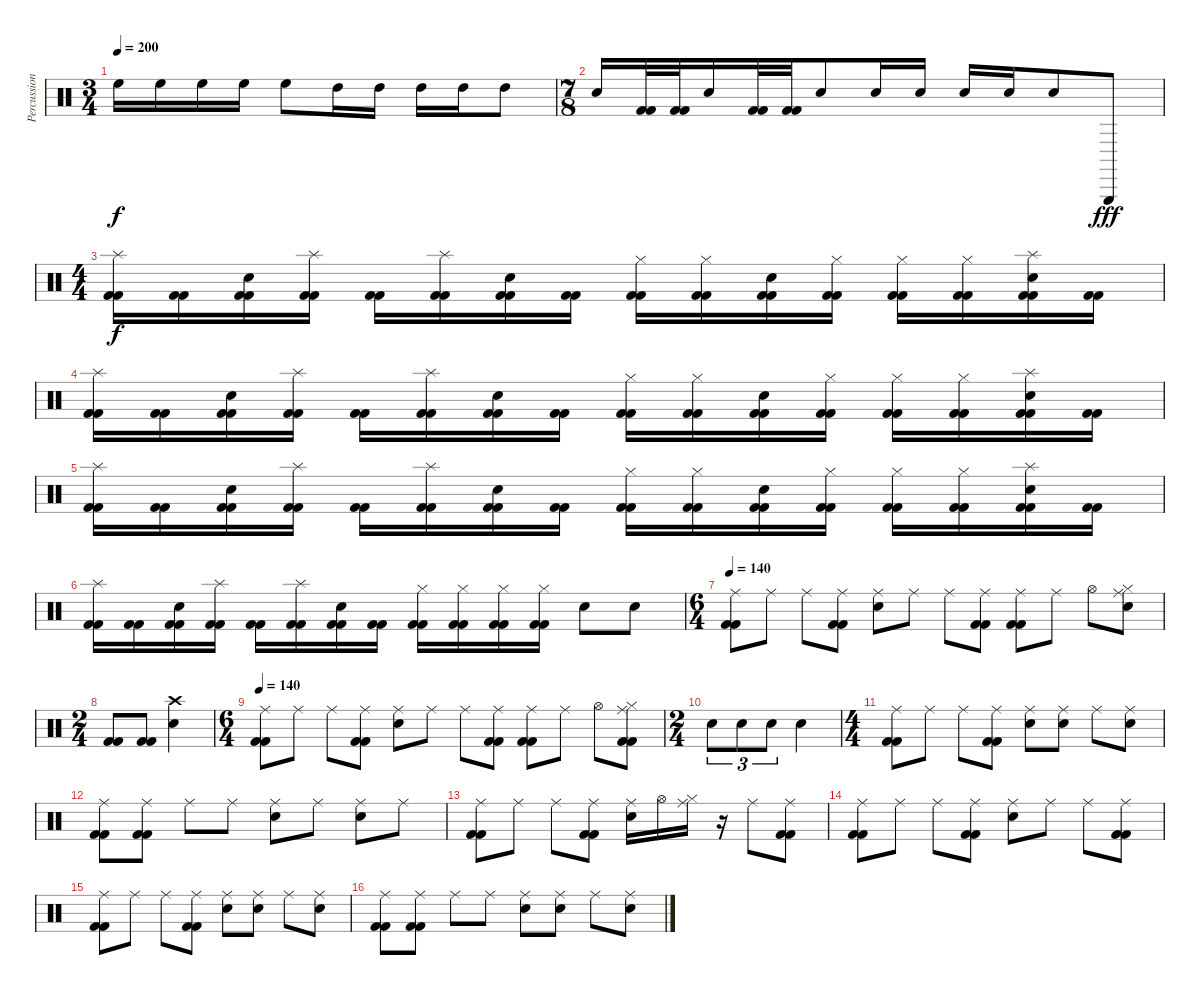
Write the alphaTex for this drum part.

\track ("Percussions" "Percussion") {instrument percussion}
\staff {score}
\articulation defaults
\ts (3 4)
\tempo 200
\clef neutral
\ks c "High Floor Tom (hit)".16{dy f} "High Floor Tom (hit)".16 "High Floor Tom (hit)".16 "High Floor Tom (hit)".16 "High Floor Tom (hit)".8 "High Tom (hit)".16 "High Tom (hit)".16 "High Tom (hit)".16 "High Tom (hit)".16 "High Tom (hit)".8
|
\ts (7 8)
"Electric Snare (hit)".16 ("Kick (hit) 2" "Kick (hit) 2").32 ("Kick (hit) 2" "Kick (hit) 2").32 "Electric Snare (hit)".16 ("Kick (hit) 2" "Kick (hit) 2").32 ("Kick (hit) 2" "Kick (hit) 2").32 "Electric Snare (hit)".8 "Electric Snare (hit)".16 "Electric Snare (hit)".16 "Electric Snare (hit)".16 "Electric Snare (hit)".16 "Electric Snare (hit)".8 "Triangle (hit)".8{dy fff} |
\ts (4 4)
("Kick (hit) 2" "Kick (hit) 2" "Splash (hit)").16{dy f} ("Kick (hit) 2" "Kick (hit) 2").16 ("Kick (hit) 2" "Kick (hit) 2" "Electric Snare (hit)").16 ("Kick (hit) 2" "Kick (hit) 2" "Splash (hit)").16 ("Kick (hit) 2" "Kick (hit) 2").16 ("Kick (hit) 2" "Kick (hit) 2" "Splash (hit)").16 ("Kick (hit) 2" "Kick (hit) 2" "Electric Snare (hit)").16 ("Kick (hit) 2" "Kick (hit) 2").16 ("Kick (hit) 2" "Kick (hit) 2" "Hi-Hat (closed)").16 ("Kick (hit) 2" "Kick (hit) 2" "Hi-Hat (closed)").16 ("Kick (hit) 2" "Kick (hit) 2" "Electric Snare (hit)").16 ("Kick (hit) 2" "Kick (hit) 2" "Hi-Hat (closed)").16 ("Kick (hit) 2" "Kick (hit) 2" "Hi-Hat (closed)").16 ("Kick (hit) 2" "Kick (hit) 2" "Hi-Hat (closed)").16 ("Kick (hit) 2" "Kick (hit) 2" "Electric Snare (hit)" "Splash (hit)").16 ("Kick (hit) 2" "Kick (hit) 2").16 |
("Kick (hit) 2" "Kick (hit) 2" "Splash (hit)").16 ("Kick (hit) 2" "Kick (hit) 2").16 ("Kick (hit) 2" "Kick (hit) 2" "Electric Snare (hit)").16 ("Kick (hit) 2" "Kick (hit) 2" "Splash (hit)").16 ("Kick (hit) 2" "Kick (hit) 2").16 ("Kick (hit) 2" "Kick (hit) 2" "Splash (hit)").16 ("Kick (hit) 2" "Kick (hit) 2" "Electric Snare (hit)").16 ("Kick (hit) 2" "Kick (hit) 2").16 ("Kick (hit) 2" "Kick (hit) 2" "Hi-Hat (closed)").16 ("Kick (hit) 2" "Kick (hit) 2" "Hi-Hat (closed)").16 ("Kick (hit) 2" "Kick (hit) 2" "Electric Snare (hit)").16 ("Kick (hit) 2" "Kick (hit) 2" "Hi-Hat (closed)").16 ("Kick (hit) 2" "Kick (hit) 2" "Hi-Hat (closed)").16 ("Kick (hit) 2" "Kick (hit) 2" "Hi-Hat (closed)").16 ("Kick (hit) 2" "Kick (hit) 2" "Electric Snare (hit)" "Splash (hit)").16 ("Kick (hit) 2" "Kick (hit) 2").16 |
("Kick (hit) 2" "Kick (hit) 2" "Splash (hit)").16 ("Kick (hit) 2" "Kick (hit) 2").16 ("Kick (hit) 2" "Kick (hit) 2" "Electric Snare (hit)").16 ("Kick (hit) 2" "Kick (hit) 2" "Splash (hit)").16 ("Kick (hit) 2" "Kick (hit) 2").16 ("Kick (hit) 2" "Kick (hit) 2" "Splash (hit)").16 ("Kick (hit) 2" "Kick (hit) 2" "Electric Snare (hit)").16 ("Kick (hit) 2" "Kick (hit) 2").16 ("Kick (hit) 2" "Kick (hit) 2" "Hi-Hat (closed)").16 ("Kick (hit) 2" "Kick (hit) 2" "Hi-Hat (closed)").16 ("Kick (hit) 2" "Kick (hit) 2" "Electric Snare (hit)").16 ("Kick (hit) 2" "Kick (hit) 2" "Hi-Hat (closed)").16 ("Kick (hit) 2" "Kick (hit) 2" "Hi-Hat (closed)").16 ("Kick (hit) 2" "Kick (hit) 2" "Hi-Hat (closed)").16 ("Kick (hit) 2" "Kick (hit) 2" "Electric Snare (hit)" "Splash (hit)").16 ("Kick (hit) 2" "Kick (hit) 2").16 |
("Kick (hit) 2" "Kick (hit) 2" "Splash (hit)").16 ("Kick (hit) 2" "Kick (hit) 2").16 ("Kick (hit) 2" "Kick (hit) 2" "Electric Snare (hit)").16 ("Kick (hit) 2" "Kick (hit) 2" "Splash (hit)").16 ("Kick (hit) 2" "Kick (hit) 2").16 ("Kick (hit) 2" "Kick (hit) 2" "Splash (hit)").16 ("Kick (hit) 2" "Kick (hit) 2" "Electric Snare (hit)").16 ("Kick (hit) 2" "Kick (hit) 2").16 ("Kick (hit) 2" "Kick (hit) 2" "Hi-Hat (closed)").16 ("Kick (hit) 2" "Kick (hit) 2" "Hi-Hat (closed)").16 ("Kick (hit) 2" "Kick (hit) 2" "Hi-Hat (closed)").16 ("Kick (hit) 2" "Kick (hit) 2" "Hi-Hat (closed)").16 "Electric Snare (hit)".8 "Electric Snare (hit)".8 |
\ts (6 4)
\tempo 140
("Kick (hit) 2" "Kick (hit) 2" "Ride (middle)").8 "Ride (middle)".8 "Ride (middle)".8 ("Kick (hit) 2" "Kick (hit) 2" "Ride (middle)").8 ("Electric Snare (hit)" "Ride (middle)").8 "Ride (middle)".8 "Ride (middle)".8 ("Kick (hit) 2" "Kick (hit) 2" "Ride (middle)").8 ("Kick (hit) 2" "Kick (hit) 2" "Ride (middle)").8 "Ride (middle)".8 "Hi-Hat (open)".8 ("Electric Snare (hit)" "Hi-Hat (closed)" "Ride (middle)").8 |
\ts (2 4)
("Kick (hit) 2" "Kick (hit) 2").8 ("Kick (hit) 2" "Kick (hit) 2").8 ("Electric Snare (hit)" "Crash high (hit)").4 |
\ts (6 4)
\tempo 140
("Kick (hit) 2" "Kick (hit) 2" "Ride (middle)").8 "Ride (middle)".8 "Ride (middle)".8 ("Kick (hit) 2" "Kick (hit) 2" "Ride (middle)").8 ("Electric Snare (hit)" "Ride (middle)").8 "Ride (middle)".8 "Ride (middle)".8 ("Kick (hit) 2" "Kick (hit) 2" "Ride (middle)").8 ("Kick (hit) 2" "Kick (hit) 2" "Ride (middle)").8 "Ride (middle)".8 "Hi-Hat (open)".8 ("Kick (hit) 2" "Kick (hit) 2" "Hi-Hat (closed)" "Ride (middle)").8 |
\ts (2 4)
"Electric Snare (hit)".8{tu (3 2)} "Electric Snare (hit)".8{tu (3 2)} "Electric Snare (hit)".8{tu (3 2)} "Electric Snare (hit)".4 |
\ts (4 4)
("Kick (hit) 2" "Kick (hit) 2" "Ride (middle)").8 "Ride (middle)".8 "Ride (middle)".8 ("Kick (hit) 2" "Kick (hit) 2" "Ride (middle)").8 ("Electric Snare (hit)" "Ride (middle)").8 ("Electric Snare (hit)" "Ride (middle)").8 "Ride (middle)".8 ("Electric Snare (hit)" "Ride (middle)").8 |
("Kick (hit) 2" "Kick (hit) 2" "Ride (middle)").8 ("Kick (hit) 2" "Kick (hit) 2" "Ride (middle)").8 "Ride (middle)".8 "Ride (middle)".8 ("Electric Snare (hit)" "Ride (middle)").8 "Ride (middle)".8 ("Electric Snare (hit)" "Ride (middle)").8 "Ride (middle)".8 |
("Kick (hit) 2" "Kick (hit) 2" "Ride (middle)").8 "Ride (middle)".8 "Ride (middle)".8 ("Kick (hit) 2" "Kick (hit) 2" "Ride (middle)").8 ("Electric Snare (hit)" "Ride (middle)").16 "Hi-Hat (open)".16 ("Hi-Hat (closed)" "Ride (middle)").16 r.16 "Ride (middle)".8 ("Kick (hit) 2" "Kick (hit) 2" "Ride (middle)").8 |
("Kick (hit) 2" "Kick (hit) 2" "Ride (middle)").8 "Ride (middle)".8 "Ride (middle)".8 ("Kick (hit) 2" "Kick (hit) 2" "Ride (middle)").8 ("Electric Snare (hit)" "Ride (middle)").8 "Ride (middle)".8 "Ride (middle)".8 ("Kick (hit) 2" "Kick (hit) 2" "Ride (middle)").8 |
("Kick (hit) 2" "Kick (hit) 2" "Ride (middle)").8 "Ride (middle)".8 "Ride (middle)".8 ("Kick (hit) 2" "Kick (hit) 2" "Ride (middle)").8 ("Electric Snare (hit)" "Ride (middle)").8 ("Electric Snare (hit)" "Ride (middle)").8 "Ride (middle)".8 ("Electric Snare (hit)" "Ride (middle)").8 |
("Kick (hit) 2" "Kick (hit) 2" "Ride (middle)").8 ("Kick (hit) 2" "Kick (hit) 2" "Ride (middle)").8 "Ride (middle)".8 "Ride (middle)".8 ("Electric Snare (hit)" "Ride (middle)").8 ("Electric Snare (hit)" "Ride (middle)").8 "Ride (middle)".8 ("Electric Snare (hit)" "Ride (middle)").8
